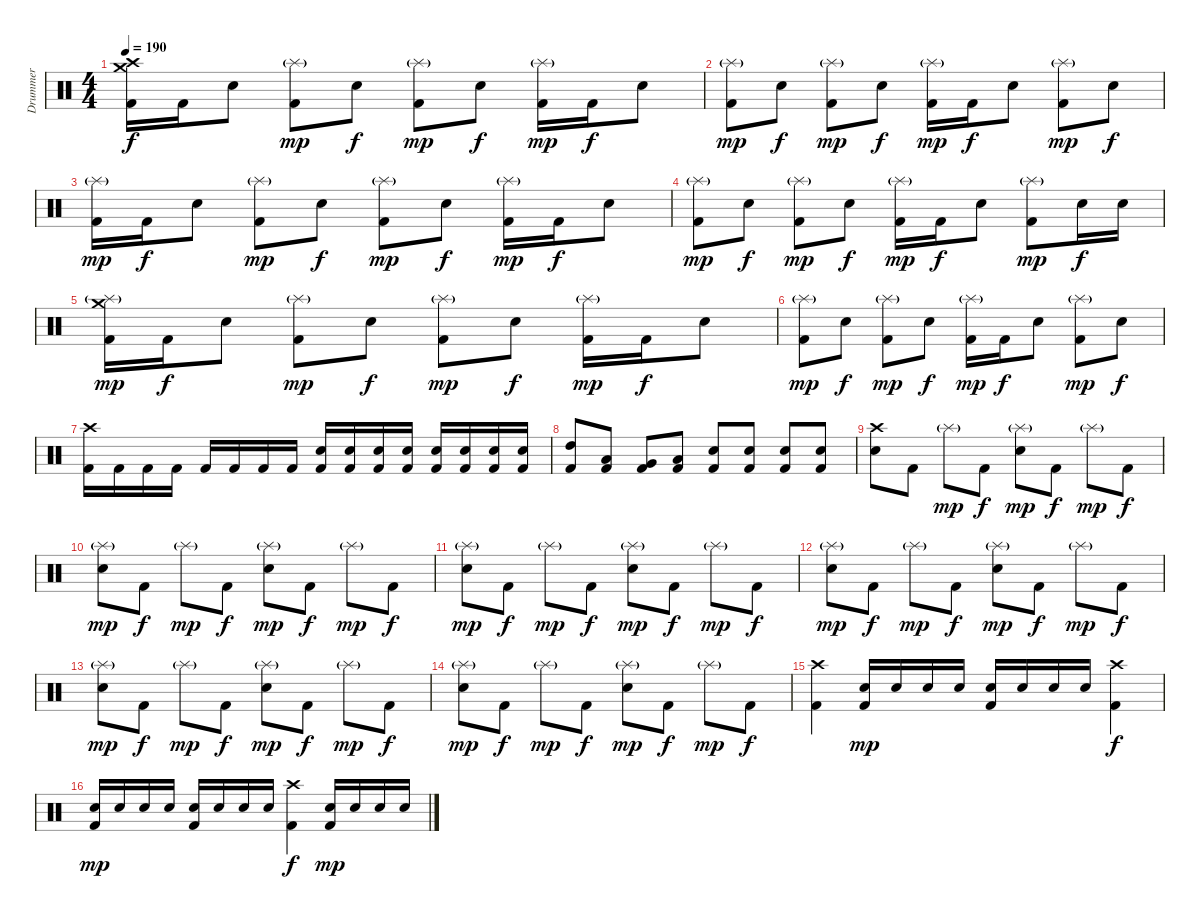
\track ("Drummer" "Drummer") {instrument percussion bank 7}
\staff {score}
\articulation defaults
\ts (4 4)
\tempo 190
\clef neutral
\ks c
("Crash medium (hit)" "Crash high (hit)" "Kick (hit) 2").16{dy f} "Kick (hit) 2".16 "Electric Snare (hit)".8 ("Splash (hit)"{g} "Kick (hit) 2").8{dy mp} "Electric Snare (hit)".8{dy f} ("Splash (hit)"{g} "Kick (hit) 2").8{dy mp} "Electric Snare (hit)".8{dy f} ("Splash (hit)"{g} "Kick (hit) 2").16{dy mp} "Kick (hit) 2".16{dy f} "Electric Snare (hit)".8 |
("Splash (hit)"{g} "Kick (hit) 2").8{dy mp} "Electric Snare (hit)".8{dy f} ("Splash (hit)"{g} "Kick (hit) 2").8{dy mp} "Electric Snare (hit)".8{dy f} ("Splash (hit)"{g} "Kick (hit) 2").16{dy mp} "Kick (hit) 2".16{dy f} "Electric Snare (hit)".8 ("Splash (hit)"{g} "Kick (hit) 2").8{dy mp} "Electric Snare (hit)".8{dy f} |
("Splash (hit)"{g} "Kick (hit) 2").16{dy mp} "Kick (hit) 2".16{dy f} "Electric Snare (hit)".8 ("Splash (hit)"{g} "Kick (hit) 2").8{dy mp} "Electric Snare (hit)".8{dy f} ("Splash (hit)"{g} "Kick (hit) 2").8{dy mp} "Electric Snare (hit)".8{dy f} ("Splash (hit)"{g} "Kick (hit) 2").16{dy mp} "Kick (hit) 2".16{dy f} "Electric Snare (hit)".8 |
("Splash (hit)"{g} "Kick (hit) 2").8{dy mp} "Electric Snare (hit)".8{dy f} ("Splash (hit)"{g} "Kick (hit) 2").8{dy mp} "Electric Snare (hit)".8{dy f} ("Splash (hit)"{g} "Kick (hit) 2").16{dy mp} "Kick (hit) 2".16{dy f} "Electric Snare (hit)".8 ("Splash (hit)"{g} "Kick (hit) 2").8{dy mp} "Electric Snare (hit)".16{dy f} "Electric Snare (hit)".16 |
("Crash medium (hit)" "Splash (hit)"{g} "Kick (hit) 2").16{dy mp} "Kick (hit) 2".16{dy f} "Electric Snare (hit)".8 ("Splash (hit)"{g} "Kick (hit) 2").8{dy mp} "Electric Snare (hit)".8{dy f} ("Splash (hit)"{g} "Kick (hit) 2").8{dy mp} "Electric Snare (hit)".8{dy f} ("Splash (hit)"{g} "Kick (hit) 2").16{dy mp} "Kick (hit) 2".16{dy f} "Electric Snare (hit)".8 |
("Splash (hit)"{g} "Kick (hit) 2").8{dy mp} "Electric Snare (hit)".8{dy f} ("Splash (hit)"{g} "Kick (hit) 2").8{dy mp} "Electric Snare (hit)".8{dy f} ("Splash (hit)"{g} "Kick (hit) 2").16{dy mp} "Kick (hit) 2".16{dy f} "Electric Snare (hit)".8 ("Splash (hit)"{g} "Kick (hit) 2").8{dy mp} "Electric Snare (hit)".8{dy f} |
("Crash high (hit)" "Kick (hit) 2").16 "Kick (hit) 2".16 "Kick (hit) 2".16 "Kick (hit) 2".16 "Kick (hit) 2".16 "Kick (hit) 2".16 "Kick (hit) 2".16 "Kick (hit) 2".16 ("Electric Snare (hit)" "Kick (hit) 2").16 ("Electric Snare (hit)" "Kick (hit) 2").16 ("Electric Snare (hit)" "Kick (hit) 2").16 ("Electric Snare (hit)" "Kick (hit) 2").16 ("Electric Snare (hit)" "Kick (hit) 2").16 ("Electric Snare (hit)" "Kick (hit) 2").16 ("Electric Snare (hit)" "Kick (hit) 2").16 ("Electric Snare (hit)" "Kick (hit) 2").16 |
("High Tom (hit)" "Kick (hit) 2").8 ("Low Tom (hit)" "Kick (hit) 2").8 ("Very Low Tom (hit)" "Kick (hit) 2").8 ("Low Floor Tom (hit)" "Kick (hit) 2").8 ("Electric Snare (hit)" "Kick (hit) 2").8 ("Electric Snare (hit)" "Kick (hit) 2").8 ("Electric Snare (hit)" "Kick (hit) 2").8 ("Electric Snare (hit)" "Kick (hit) 2").8 |
("Crash high (hit)" "Electric Snare (hit)").8 "Kick (hit) 2".8 "Splash (hit)"{g}.8{dy mp} "Kick (hit) 2".8{dy f} ("Splash (hit)"{g} "Electric Snare (hit)").8{dy mp} "Kick (hit) 2".8{dy f} "Splash (hit)"{g}.8{dy mp} "Kick (hit) 2".8{dy f} |
("Splash (hit)"{g} "Electric Snare (hit)").8{dy mp} "Kick (hit) 2".8{dy f} "Splash (hit)"{g}.8{dy mp} "Kick (hit) 2".8{dy f} ("Splash (hit)"{g} "Electric Snare (hit)").8{dy mp} "Kick (hit) 2".8{dy f} "Splash (hit)"{g}.8{dy mp} "Kick (hit) 2".8{dy f} |
("Splash (hit)"{g} "Electric Snare (hit)").8{dy mp} "Kick (hit) 2".8{dy f} "Splash (hit)"{g}.8{dy mp} "Kick (hit) 2".8{dy f} ("Splash (hit)"{g} "Electric Snare (hit)").8{dy mp} "Kick (hit) 2".8{dy f} "Splash (hit)"{g}.8{dy mp} "Kick (hit) 2".8{dy f} |
("Splash (hit)"{g} "Electric Snare (hit)").8{dy mp} "Kick (hit) 2".8{dy f} "Splash (hit)"{g}.8{dy mp} "Kick (hit) 2".8{dy f} ("Splash (hit)"{g} "Electric Snare (hit)").8{dy mp} "Kick (hit) 2".8{dy f} "Splash (hit)"{g}.8{dy mp} "Kick (hit) 2".8{dy f} |
("Splash (hit)"{g} "Electric Snare (hit)").8{dy mp} "Kick (hit) 2".8{dy f} "Splash (hit)"{g}.8{dy mp} "Kick (hit) 2".8{dy f} ("Splash (hit)"{g} "Electric Snare (hit)").8{dy mp} "Kick (hit) 2".8{dy f} "Splash (hit)"{g}.8{dy mp} "Kick (hit) 2".8{dy f} |
("Splash (hit)"{g} "Electric Snare (hit)").8{dy mp} "Kick (hit) 2".8{dy f} "Splash (hit)"{g}.8{dy mp} "Kick (hit) 2".8{dy f} ("Splash (hit)"{g} "Electric Snare (hit)").8{dy mp} "Kick (hit) 2".8{dy f} "Splash (hit)"{g}.8{dy mp} "Kick (hit) 2".8{dy f} |
("Crash high (hit)" "Kick (hit) 2").4 ("Electric Snare (hit)" "Kick (hit) 2").16{dy mp} "Electric Snare (hit)".16 "Electric Snare (hit)".16 "Electric Snare (hit)".16 ("Electric Snare (hit)" "Kick (hit) 2").16 "Electric Snare (hit)".16 "Electric Snare (hit)".16 "Electric Snare (hit)".16 ("Crash high (hit)" "Kick (hit) 2").4{dy f} |
("Electric Snare (hit)" "Kick (hit) 2").16{dy mp} "Electric Snare (hit)".16 "Electric Snare (hit)".16 "Electric Snare (hit)".16 ("Electric Snare (hit)" "Kick (hit) 2").16 "Electric Snare (hit)".16 "Electric Snare (hit)".16 "Electric Snare (hit)".16 ("Crash high (hit)" "Kick (hit) 2").4{dy f} ("Electric Snare (hit)" "Kick (hit) 2").16{dy mp} "Electric Snare (hit)".16 "Electric Snare (hit)".16 "Electric Snare (hit)".16
